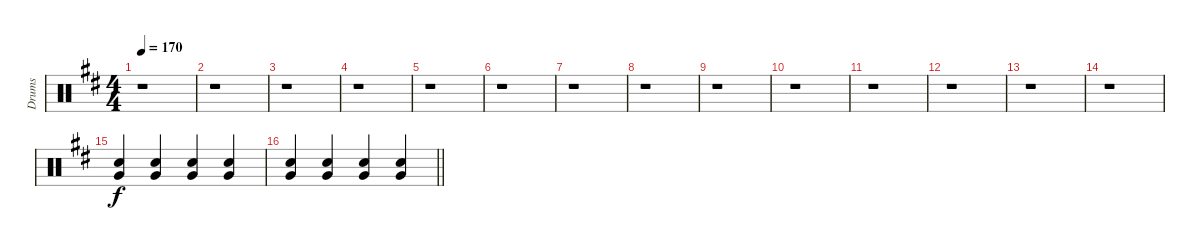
\track ("Drums" "Drums") {instrument percussion}
\staff {score}
\articulation defaults
\ts (4 4)
\tempo 170
\clef neutral
\ks d
r.1{dy f} |
r.1 |
r.1 |
r.1 |
r.1 |
r.1 |
r.1 |
r.1 |
r.1 |
r.1 |
r.1 |
r.1 |
r.1 |
r.1 |
("Very Low Tom (hit)" "Electric Snare (hit)").4 ("Electric Snare (hit)" "Very Low Tom (hit)").4 ("Very Low Tom (hit)" "Electric Snare (hit)").4 ("Very Low Tom (hit)" "Electric Snare (hit)").4 |
\barLineRight lightlight
("Very Low Tom (hit)" "Electric Snare (hit)").4 ("Very Low Tom (hit)" "Electric Snare (hit)").4 ("Very Low Tom (hit)" "Electric Snare (hit)").4 ("Very Low Tom (hit)" "Electric Snare (hit)").4
